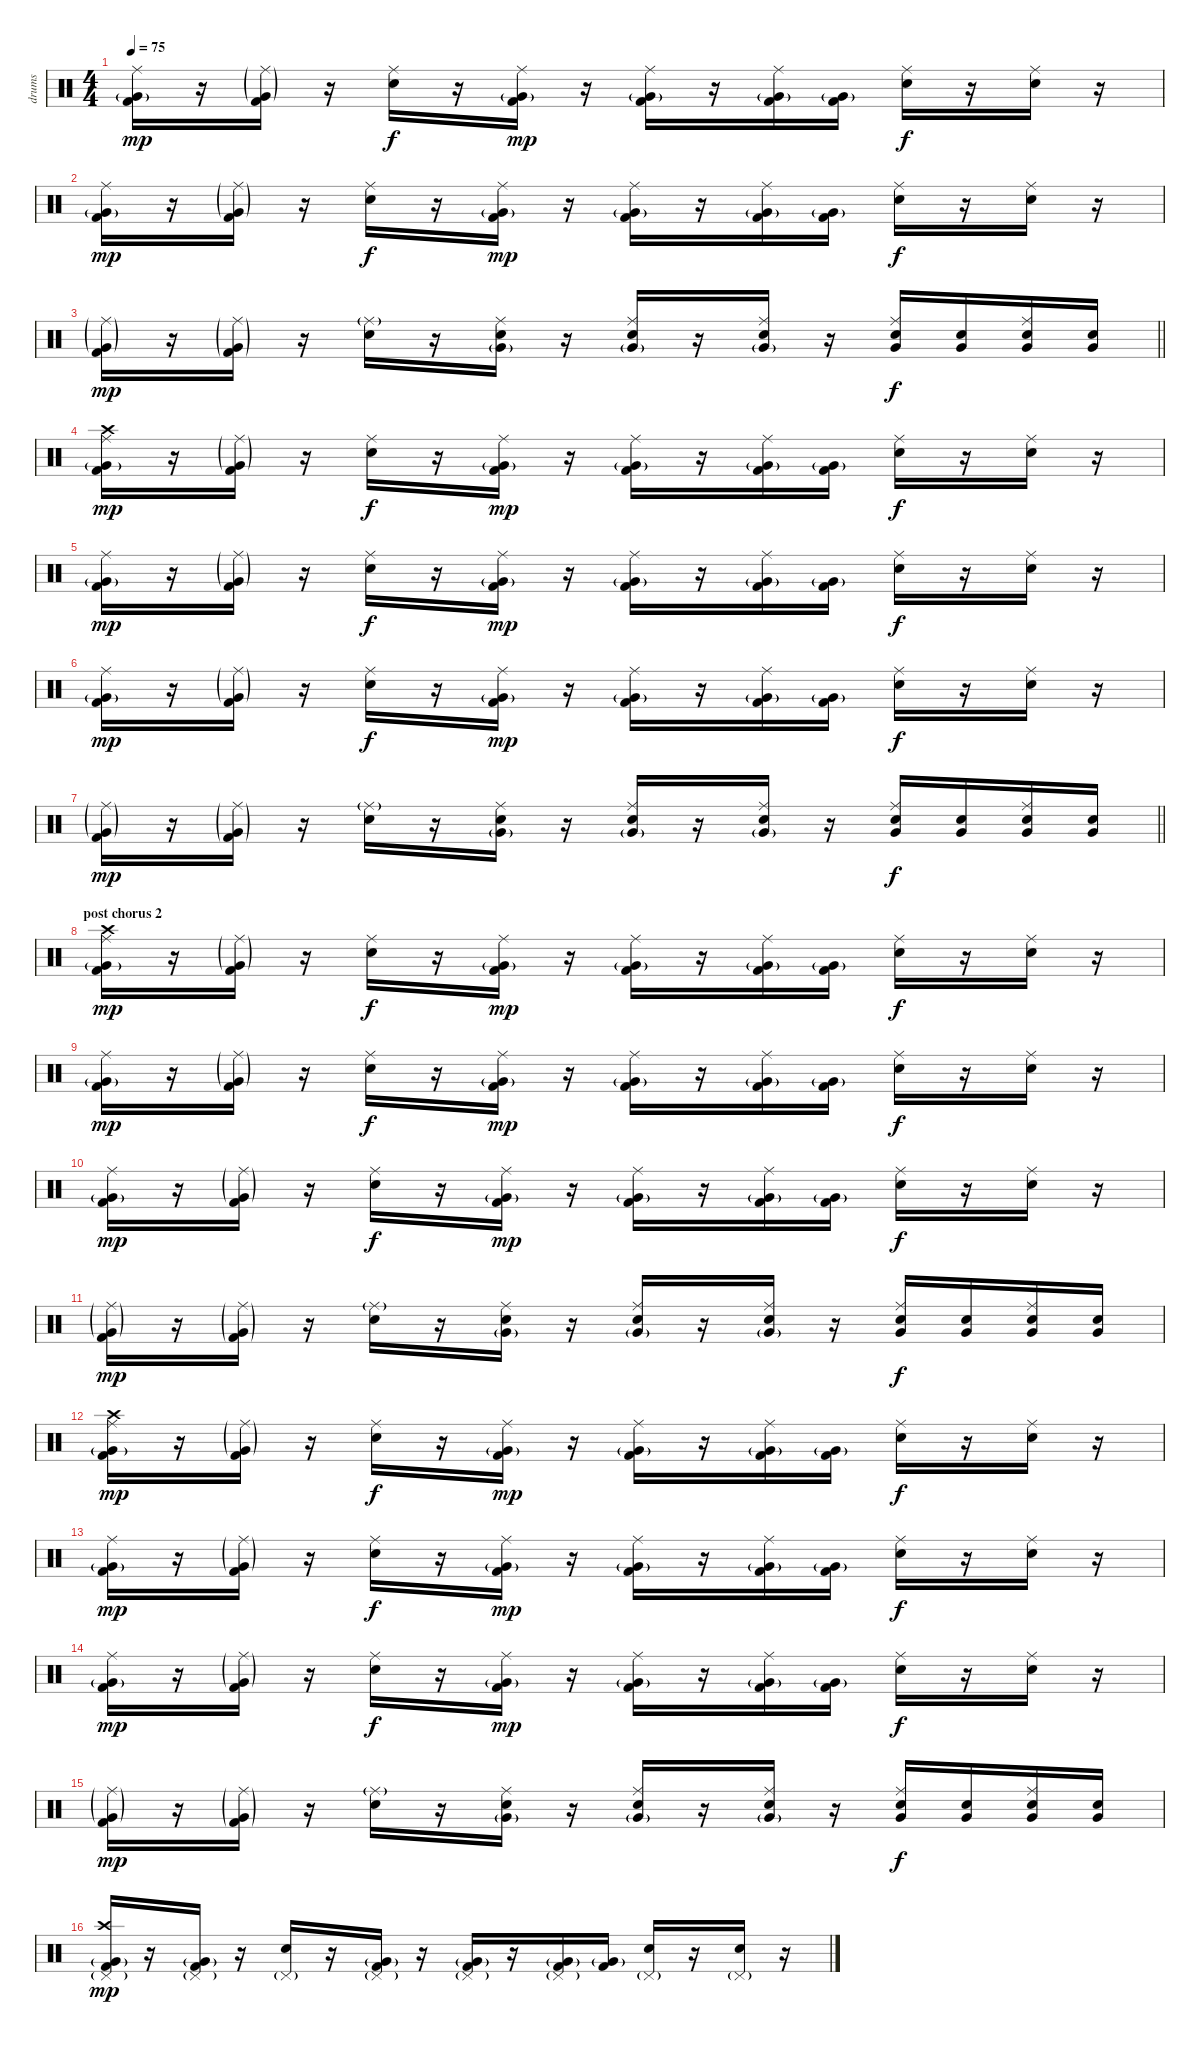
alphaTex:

\track ("drums" "drums") {instrument percussion}
\staff {score}
\articulation defaults
\ts (4 4)
\tempo 75
\clef neutral
\ks c
("Kick (hit) 2" "Very Low Tom (hit)"{g} "Ride (middle)").16{dy mp} r.16 ("Kick (hit) 2" "Very Low Tom (hit)"{g} "Ride (middle)"{g}).16 r.16 ("Electric Snare (hit)" "Ride (middle)").16{dy f} r.16 ("Kick (hit) 2" "Very Low Tom (hit)"{g} "Ride (middle)").16{dy mp} r.16 ("Kick (hit) 2" "Very Low Tom (hit)"{g} "Ride (middle)").16 r.16 ("Kick (hit) 2" "Very Low Tom (hit)"{g} "Ride (middle)").16 ("Kick (hit) 2" "Very Low Tom (hit)"{g}).16 ("Electric Snare (hit)" "Ride (middle)").16{dy f} r.16 ("Electric Snare (hit)" "Ride (middle)").16 r.16 |
("Kick (hit) 2" "Very Low Tom (hit)"{g} "Ride (middle)").16{dy mp} r.16 ("Kick (hit) 2" "Very Low Tom (hit)"{g} "Ride (middle)"{g}).16 r.16 ("Electric Snare (hit)" "Ride (middle)").16{dy f} r.16 ("Kick (hit) 2" "Very Low Tom (hit)"{g} "Ride (middle)").16{dy mp} r.16 ("Kick (hit) 2" "Very Low Tom (hit)"{g} "Ride (middle)").16 r.16 ("Kick (hit) 2" "Very Low Tom (hit)"{g} "Ride (middle)").16 ("Kick (hit) 2" "Very Low Tom (hit)"{g}).16 ("Electric Snare (hit)" "Ride (middle)").16{dy f} r.16 ("Electric Snare (hit)" "Ride (middle)").16 r.16 |
\barLineRight lightlight
("Kick (hit) 2" "Very Low Tom (hit)"{g} "Ride (middle)"{g}).16{dy mp} r.16 ("Kick (hit) 2"{g} "Very Low Tom (hit)"{g} "Ride (middle)"{g}).16 r.16 ("Electric Snare (hit)" "Ride (middle)"{g}).16 r.16 ("Electric Snare (hit)" "Very Low Tom (hit)"{g} "Ride (middle)").16 r.16 ("Electric Snare (hit)" "Very Low Tom (hit)"{g} "Ride (middle)").16 r.16 ("Electric Snare (hit)" "Very Low Tom (hit)"{g} "Ride (middle)").16 r.16 ("Electric Snare (hit)" "Very Low Tom (hit)" "Ride (middle)").16{dy f} ("Electric Snare (hit)" "Very Low Tom (hit)").16 ("Electric Snare (hit)" "Very Low Tom (hit)" "Ride (middle)").16 ("Electric Snare (hit)" "Very Low Tom (hit)").16 |
("Kick (hit) 2" "Very Low Tom (hit)"{g} "Ride (middle)" "Crash high (hit)").16{dy mp} r.16 ("Kick (hit) 2" "Very Low Tom (hit)"{g} "Ride (middle)"{g}).16 r.16 ("Electric Snare (hit)" "Ride (middle)").16{dy f} r.16 ("Kick (hit) 2" "Very Low Tom (hit)"{g} "Ride (middle)").16{dy mp} r.16 ("Kick (hit) 2" "Very Low Tom (hit)"{g} "Ride (middle)").16 r.16 ("Kick (hit) 2" "Very Low Tom (hit)"{g} "Ride (middle)").16 ("Kick (hit) 2" "Very Low Tom (hit)"{g}).16 ("Electric Snare (hit)" "Ride (middle)").16{dy f} r.16 ("Electric Snare (hit)" "Ride (middle)").16 r.16 |
("Kick (hit) 2" "Very Low Tom (hit)"{g} "Ride (middle)").16{dy mp} r.16 ("Kick (hit) 2" "Very Low Tom (hit)"{g} "Ride (middle)"{g}).16 r.16 ("Electric Snare (hit)" "Ride (middle)").16{dy f} r.16 ("Kick (hit) 2" "Very Low Tom (hit)"{g} "Ride (middle)").16{dy mp} r.16 ("Kick (hit) 2" "Very Low Tom (hit)"{g} "Ride (middle)").16 r.16 ("Kick (hit) 2" "Very Low Tom (hit)"{g} "Ride (middle)").16 ("Kick (hit) 2" "Very Low Tom (hit)"{g}).16 ("Electric Snare (hit)" "Ride (middle)").16{dy f} r.16 ("Electric Snare (hit)" "Ride (middle)").16 r.16 |
("Kick (hit) 2" "Very Low Tom (hit)"{g} "Ride (middle)").16{dy mp} r.16 ("Kick (hit) 2" "Very Low Tom (hit)"{g} "Ride (middle)"{g}).16 r.16 ("Electric Snare (hit)" "Ride (middle)").16{dy f} r.16 ("Kick (hit) 2" "Very Low Tom (hit)"{g} "Ride (middle)").16{dy mp} r.16 ("Kick (hit) 2" "Very Low Tom (hit)"{g} "Ride (middle)").16 r.16 ("Kick (hit) 2" "Very Low Tom (hit)"{g} "Ride (middle)").16 ("Kick (hit) 2" "Very Low Tom (hit)"{g}).16 ("Electric Snare (hit)" "Ride (middle)").16{dy f} r.16 ("Electric Snare (hit)" "Ride (middle)").16 r.16 |
\barLineRight lightlight
("Kick (hit) 2" "Very Low Tom (hit)"{g} "Ride (middle)"{g}).16{dy mp} r.16 ("Kick (hit) 2"{g} "Very Low Tom (hit)"{g} "Ride (middle)"{g}).16 r.16 ("Electric Snare (hit)" "Ride (middle)"{g}).16 r.16 ("Electric Snare (hit)" "Very Low Tom (hit)"{g} "Ride (middle)").16 r.16 ("Electric Snare (hit)" "Very Low Tom (hit)"{g} "Ride (middle)").16 r.16 ("Electric Snare (hit)" "Very Low Tom (hit)"{g} "Ride (middle)").16 r.16 ("Electric Snare (hit)" "Very Low Tom (hit)" "Ride (middle)").16{dy f} ("Electric Snare (hit)" "Very Low Tom (hit)").16 ("Electric Snare (hit)" "Very Low Tom (hit)" "Ride (middle)").16 ("Electric Snare (hit)" "Very Low Tom (hit)").16 |
\section ("" "post chorus 2")
("Kick (hit) 2" "Very Low Tom (hit)"{g} "Ride (middle)" "Crash high (hit)").16{dy mp} r.16 ("Kick (hit) 2" "Very Low Tom (hit)"{g} "Ride (middle)"{g}).16 r.16 ("Electric Snare (hit)" "Ride (middle)").16{dy f} r.16 ("Kick (hit) 2" "Very Low Tom (hit)"{g} "Ride (middle)").16{dy mp} r.16 ("Kick (hit) 2" "Very Low Tom (hit)"{g} "Ride (middle)").16 r.16 ("Kick (hit) 2" "Very Low Tom (hit)"{g} "Ride (middle)").16 ("Kick (hit) 2" "Very Low Tom (hit)"{g}).16 ("Electric Snare (hit)" "Ride (middle)").16{dy f} r.16 ("Electric Snare (hit)" "Ride (middle)").16 r.16 |
("Kick (hit) 2" "Very Low Tom (hit)"{g} "Ride (middle)").16{dy mp} r.16 ("Kick (hit) 2" "Very Low Tom (hit)"{g} "Ride (middle)"{g}).16 r.16 ("Electric Snare (hit)" "Ride (middle)").16{dy f} r.16 ("Kick (hit) 2" "Very Low Tom (hit)"{g} "Ride (middle)").16{dy mp} r.16 ("Kick (hit) 2" "Very Low Tom (hit)"{g} "Ride (middle)").16 r.16 ("Kick (hit) 2" "Very Low Tom (hit)"{g} "Ride (middle)").16 ("Kick (hit) 2" "Very Low Tom (hit)"{g}).16 ("Electric Snare (hit)" "Ride (middle)").16{dy f} r.16 ("Electric Snare (hit)" "Ride (middle)").16 r.16 |
("Kick (hit) 2" "Very Low Tom (hit)"{g} "Ride (middle)").16{dy mp} r.16 ("Kick (hit) 2" "Very Low Tom (hit)"{g} "Ride (middle)"{g}).16 r.16 ("Electric Snare (hit)" "Ride (middle)").16{dy f} r.16 ("Kick (hit) 2" "Very Low Tom (hit)"{g} "Ride (middle)").16{dy mp} r.16 ("Kick (hit) 2" "Very Low Tom (hit)"{g} "Ride (middle)").16 r.16 ("Kick (hit) 2" "Very Low Tom (hit)"{g} "Ride (middle)").16 ("Kick (hit) 2" "Very Low Tom (hit)"{g}).16 ("Electric Snare (hit)" "Ride (middle)").16{dy f} r.16 ("Electric Snare (hit)" "Ride (middle)").16 r.16 |
("Kick (hit) 2" "Very Low Tom (hit)"{g} "Ride (middle)"{g}).16{dy mp} r.16 ("Kick (hit) 2"{g} "Very Low Tom (hit)"{g} "Ride (middle)"{g}).16 r.16 ("Electric Snare (hit)" "Ride (middle)"{g}).16 r.16 ("Electric Snare (hit)" "Very Low Tom (hit)"{g} "Ride (middle)").16 r.16 ("Electric Snare (hit)" "Very Low Tom (hit)"{g} "Ride (middle)").16 r.16 ("Electric Snare (hit)" "Very Low Tom (hit)"{g} "Ride (middle)").16 r.16 ("Electric Snare (hit)" "Very Low Tom (hit)" "Ride (middle)").16{dy f} ("Electric Snare (hit)" "Very Low Tom (hit)").16 ("Electric Snare (hit)" "Very Low Tom (hit)" "Ride (middle)").16 ("Electric Snare (hit)" "Very Low Tom (hit)").16 |
("Kick (hit) 2" "Very Low Tom (hit)"{g} "Ride (middle)" "Crash high (hit)").16{dy mp} r.16 ("Kick (hit) 2" "Very Low Tom (hit)"{g} "Ride (middle)"{g}).16 r.16 ("Electric Snare (hit)" "Ride (middle)").16{dy f} r.16 ("Kick (hit) 2" "Very Low Tom (hit)"{g} "Ride (middle)").16{dy mp} r.16 ("Kick (hit) 2" "Very Low Tom (hit)"{g} "Ride (middle)").16 r.16 ("Kick (hit) 2" "Very Low Tom (hit)"{g} "Ride (middle)").16 ("Kick (hit) 2" "Very Low Tom (hit)"{g}).16 ("Electric Snare (hit)" "Ride (middle)").16{dy f} r.16 ("Electric Snare (hit)" "Ride (middle)").16 r.16 |
("Kick (hit) 2" "Very Low Tom (hit)"{g} "Ride (middle)").16{dy mp} r.16 ("Kick (hit) 2" "Very Low Tom (hit)"{g} "Ride (middle)"{g}).16 r.16 ("Electric Snare (hit)" "Ride (middle)").16{dy f} r.16 ("Kick (hit) 2" "Very Low Tom (hit)"{g} "Ride (middle)").16{dy mp} r.16 ("Kick (hit) 2" "Very Low Tom (hit)"{g} "Ride (middle)").16 r.16 ("Kick (hit) 2" "Very Low Tom (hit)"{g} "Ride (middle)").16 ("Kick (hit) 2" "Very Low Tom (hit)"{g}).16 ("Electric Snare (hit)" "Ride (middle)").16{dy f} r.16 ("Electric Snare (hit)" "Ride (middle)").16 r.16 |
("Kick (hit) 2" "Very Low Tom (hit)"{g} "Ride (middle)").16{dy mp} r.16 ("Kick (hit) 2" "Very Low Tom (hit)"{g} "Ride (middle)"{g}).16 r.16 ("Electric Snare (hit)" "Ride (middle)").16{dy f} r.16 ("Kick (hit) 2" "Very Low Tom (hit)"{g} "Ride (middle)").16{dy mp} r.16 ("Kick (hit) 2" "Very Low Tom (hit)"{g} "Ride (middle)").16 r.16 ("Kick (hit) 2" "Very Low Tom (hit)"{g} "Ride (middle)").16 ("Kick (hit) 2" "Very Low Tom (hit)"{g}).16 ("Electric Snare (hit)" "Ride (middle)").16{dy f} r.16 ("Electric Snare (hit)" "Ride (middle)").16 r.16 |
("Kick (hit) 2" "Very Low Tom (hit)"{g} "Ride (middle)"{g}).16{dy mp} r.16 ("Kick (hit) 2"{g} "Very Low Tom (hit)"{g} "Ride (middle)"{g}).16 r.16 ("Electric Snare (hit)" "Ride (middle)"{g}).16 r.16 ("Electric Snare (hit)" "Very Low Tom (hit)"{g} "Ride (middle)").16 r.16 ("Electric Snare (hit)" "Very Low Tom (hit)"{g} "Ride (middle)").16 r.16 ("Electric Snare (hit)" "Very Low Tom (hit)"{g} "Ride (middle)").16 r.16 ("Electric Snare (hit)" "Very Low Tom (hit)" "Ride (middle)").16{dy f} ("Electric Snare (hit)" "Very Low Tom (hit)").16 ("Electric Snare (hit)" "Very Low Tom (hit)" "Ride (middle)").16 ("Electric Snare (hit)" "Very Low Tom (hit)").16 |
("Kick (hit) 2" "Very Low Tom (hit)"{g} "Pedal Hi-Hat (hit)"{g} "Crash high (hit)").16{dy mp} r.16 ("Kick (hit) 2" "Very Low Tom (hit)"{g} "Pedal Hi-Hat (hit)"{g}).16 r.16 ("Electric Snare (hit)" "Pedal Hi-Hat (hit)"{g}).16 r.16 ("Kick (hit) 2" "Very Low Tom (hit)"{g} "Pedal Hi-Hat (hit)"{g}).16 r.16 ("Kick (hit) 2" "Very Low Tom (hit)"{g} "Pedal Hi-Hat (hit)"{g}).16 r.16 ("Kick (hit) 2" "Very Low Tom (hit)"{g} "Pedal Hi-Hat (hit)"{g}).16 ("Kick (hit) 2" "Very Low Tom (hit)"{g}).16 ("Electric Snare (hit)" "Pedal Hi-Hat (hit)"{g}).16 r.16 ("Electric Snare (hit)" "Pedal Hi-Hat (hit)"{g}).16 r.16
